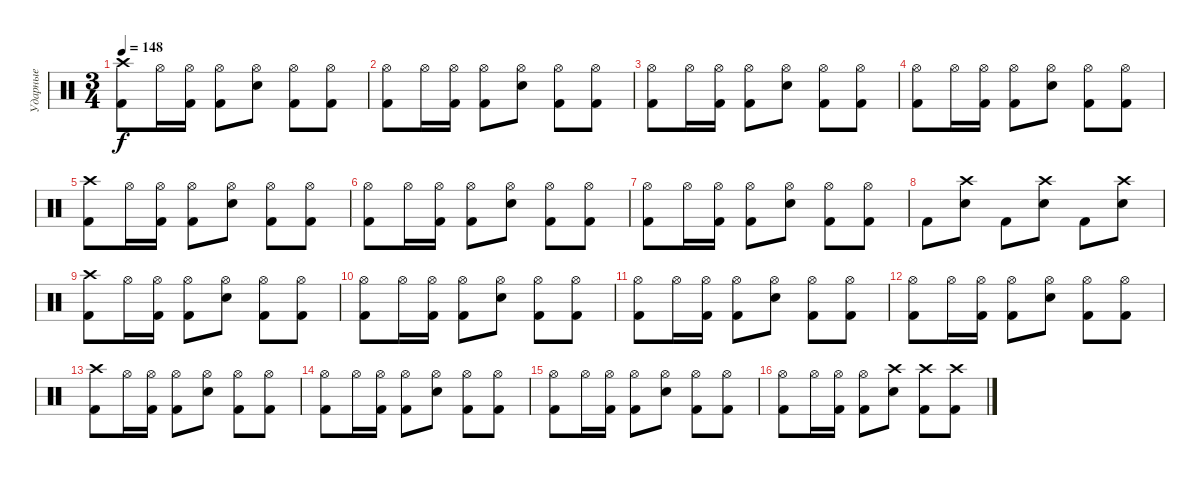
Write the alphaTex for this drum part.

\track ("Ударные" "Ударные") {instrument percussion}
\staff {score}
\articulation defaults
\ts (3 4)
\tempo 148
\clef neutral
\ks c
("Crash high (hit)" "Kick (hit) 2").8{dy f} "Hi-Hat (open)".16 ("Hi-Hat (open)" "Kick (hit) 2").16 ("Hi-Hat (open)" "Kick (hit) 2").8 ("Hi-Hat (open)" "Electric Snare (hit)").8 ("Hi-Hat (open)" "Kick (hit) 2").8 ("Hi-Hat (open)" "Kick (hit) 2").8 |
("Hi-Hat (open)" "Kick (hit) 2").8 "Hi-Hat (open)".16 ("Hi-Hat (open)" "Kick (hit) 2").16 ("Hi-Hat (open)" "Kick (hit) 2").8 ("Hi-Hat (open)" "Electric Snare (hit)").8 ("Hi-Hat (open)" "Kick (hit) 2").8 ("Hi-Hat (open)" "Kick (hit) 2").8 |
("Hi-Hat (open)" "Kick (hit) 2").8 "Hi-Hat (open)".16 ("Hi-Hat (open)" "Kick (hit) 2").16 ("Hi-Hat (open)" "Kick (hit) 2").8 ("Hi-Hat (open)" "Electric Snare (hit)").8 ("Hi-Hat (open)" "Kick (hit) 2").8 ("Hi-Hat (open)" "Kick (hit) 2").8 |
("Hi-Hat (open)" "Kick (hit) 2").8 "Hi-Hat (open)".16 ("Hi-Hat (open)" "Kick (hit) 2").16 ("Hi-Hat (open)" "Kick (hit) 2").8 ("Hi-Hat (open)" "Electric Snare (hit)").8 ("Hi-Hat (open)" "Kick (hit) 2").8 ("Hi-Hat (open)" "Kick (hit) 2").8 |
("Crash high (hit)" "Kick (hit) 2").8 "Hi-Hat (open)".16 ("Hi-Hat (open)" "Kick (hit) 2").16 ("Hi-Hat (open)" "Kick (hit) 2").8 ("Hi-Hat (open)" "Electric Snare (hit)").8 ("Hi-Hat (open)" "Kick (hit) 2").8 ("Hi-Hat (open)" "Kick (hit) 2").8 |
("Hi-Hat (open)" "Kick (hit) 2").8 "Hi-Hat (open)".16 ("Hi-Hat (open)" "Kick (hit) 2").16 ("Hi-Hat (open)" "Kick (hit) 2").8 ("Hi-Hat (open)" "Electric Snare (hit)").8 ("Hi-Hat (open)" "Kick (hit) 2").8 ("Hi-Hat (open)" "Kick (hit) 2").8 |
("Hi-Hat (open)" "Kick (hit) 2").8 "Hi-Hat (open)".16 ("Hi-Hat (open)" "Kick (hit) 2").16 ("Hi-Hat (open)" "Kick (hit) 2").8 ("Hi-Hat (open)" "Electric Snare (hit)").8 ("Hi-Hat (open)" "Kick (hit) 2").8 ("Hi-Hat (open)" "Kick (hit) 2").8 |
"Kick (hit) 2".8 ("Crash high (hit)" "Electric Snare (hit)").8 "Kick (hit) 2".8 ("Crash high (hit)" "Electric Snare (hit)").8 "Kick (hit) 2".8 ("Crash high (hit)" "Electric Snare (hit)").8 |
("Crash high (hit)" "Kick (hit) 2").8 "Hi-Hat (open)".16 ("Hi-Hat (open)" "Kick (hit) 2").16 ("Hi-Hat (open)" "Kick (hit) 2").8 ("Hi-Hat (open)" "Electric Snare (hit)").8 ("Hi-Hat (open)" "Kick (hit) 2").8 ("Hi-Hat (open)" "Kick (hit) 2").8 |
("Hi-Hat (open)" "Kick (hit) 2").8 "Hi-Hat (open)".16 ("Hi-Hat (open)" "Kick (hit) 2").16 ("Hi-Hat (open)" "Kick (hit) 2").8 ("Hi-Hat (open)" "Electric Snare (hit)").8 ("Hi-Hat (open)" "Kick (hit) 2").8 ("Hi-Hat (open)" "Kick (hit) 2").8 |
("Hi-Hat (open)" "Kick (hit) 2").8 "Hi-Hat (open)".16 ("Hi-Hat (open)" "Kick (hit) 2").16 ("Hi-Hat (open)" "Kick (hit) 2").8 ("Hi-Hat (open)" "Electric Snare (hit)").8 ("Hi-Hat (open)" "Kick (hit) 2").8 ("Hi-Hat (open)" "Kick (hit) 2").8 |
("Hi-Hat (open)" "Kick (hit) 2").8 "Hi-Hat (open)".16 ("Hi-Hat (open)" "Kick (hit) 2").16 ("Hi-Hat (open)" "Kick (hit) 2").8 ("Hi-Hat (open)" "Electric Snare (hit)").8 ("Hi-Hat (open)" "Kick (hit) 2").8 ("Hi-Hat (open)" "Kick (hit) 2").8 |
("Crash high (hit)" "Kick (hit) 2").8 "Hi-Hat (open)".16 ("Hi-Hat (open)" "Kick (hit) 2").16 ("Hi-Hat (open)" "Kick (hit) 2").8 ("Hi-Hat (open)" "Electric Snare (hit)").8 ("Hi-Hat (open)" "Kick (hit) 2").8 ("Hi-Hat (open)" "Kick (hit) 2").8 |
("Hi-Hat (open)" "Kick (hit) 2").8 "Hi-Hat (open)".16 ("Hi-Hat (open)" "Kick (hit) 2").16 ("Hi-Hat (open)" "Kick (hit) 2").8 ("Hi-Hat (open)" "Electric Snare (hit)").8 ("Hi-Hat (open)" "Kick (hit) 2").8 ("Hi-Hat (open)" "Kick (hit) 2").8 |
("Hi-Hat (open)" "Kick (hit) 2").8 "Hi-Hat (open)".16 ("Hi-Hat (open)" "Kick (hit) 2").16 ("Hi-Hat (open)" "Kick (hit) 2").8 ("Hi-Hat (open)" "Electric Snare (hit)").8 ("Hi-Hat (open)" "Kick (hit) 2").8 ("Hi-Hat (open)" "Kick (hit) 2").8 |
("Hi-Hat (open)" "Kick (hit) 2").8 "Hi-Hat (open)".16 ("Hi-Hat (open)" "Kick (hit) 2").16 ("Hi-Hat (open)" "Kick (hit) 2").8 ("Crash high (hit)" "Electric Snare (hit)").8 ("Crash high (hit)" "Kick (hit) 2").8 ("Crash high (hit)" "Kick (hit) 2").8
